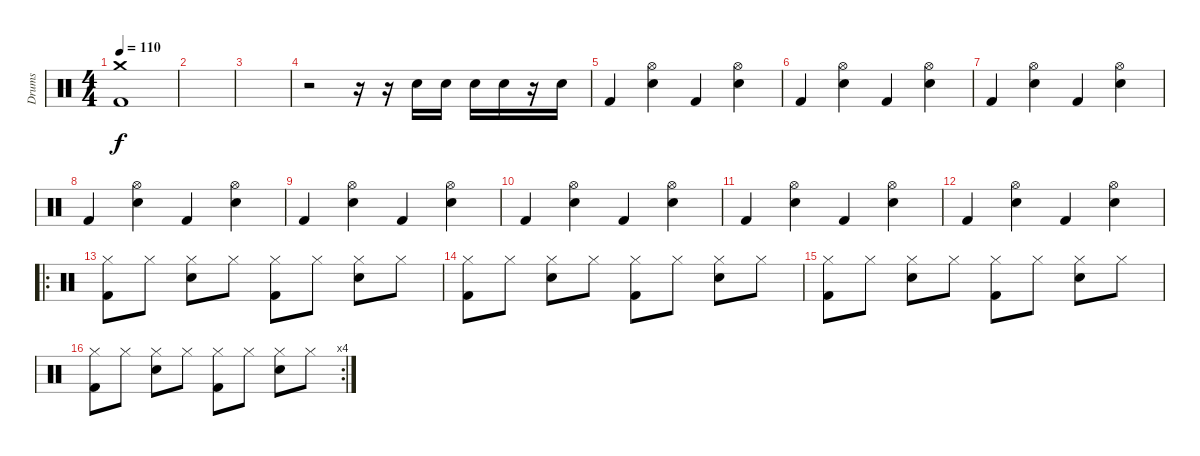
\track ("Drums" "Drums") {instrument percussion}
\staff {score}
\articulation defaults
\ts (4 4)
\tempo 110
\clef neutral
\ks c
("Kick (hit) 2" "Crash medium (hit)").1{dy f} |
|
|
r.2 r.16 r.16 "Electric Snare (hit)".16 "Electric Snare (hit)".16 "Electric Snare (hit)".16 "Electric Snare (hit)".16 r.16 "Electric Snare (hit)".16 |
"Kick (hit) 2".4 ("Electric Snare (hit)" "Hi-Hat (open)").4 "Kick (hit) 2".4 ("Electric Snare (hit)" "Hi-Hat (open)").4 |
"Kick (hit) 2".4 ("Electric Snare (hit)" "Hi-Hat (open)").4 "Kick (hit) 2".4 ("Electric Snare (hit)" "Hi-Hat (open)").4 |
"Kick (hit) 2".4 ("Electric Snare (hit)" "Hi-Hat (open)").4 "Kick (hit) 2".4 ("Electric Snare (hit)" "Hi-Hat (open)").4 |
"Kick (hit) 2".4 ("Electric Snare (hit)" "Hi-Hat (open)").4 "Kick (hit) 2".4 ("Electric Snare (hit)" "Hi-Hat (open)").4 |
"Kick (hit) 2".4 ("Electric Snare (hit)" "Hi-Hat (open)").4 "Kick (hit) 2".4 ("Electric Snare (hit)" "Hi-Hat (open)").4 |
"Kick (hit) 2".4 ("Electric Snare (hit)" "Hi-Hat (open)").4 "Kick (hit) 2".4 ("Electric Snare (hit)" "Hi-Hat (open)").4 |
"Kick (hit) 2".4 ("Electric Snare (hit)" "Hi-Hat (open)").4 "Kick (hit) 2".4 ("Electric Snare (hit)" "Hi-Hat (open)").4 |
"Kick (hit) 2".4 ("Electric Snare (hit)" "Hi-Hat (open)").4 "Kick (hit) 2".4 ("Electric Snare (hit)" "Hi-Hat (open)").4 |
\ro
("Kick (hit) 2" "Hi-Hat (closed)").8 "Hi-Hat (closed)".8 ("Electric Snare (hit)" "Hi-Hat (closed)").8 "Hi-Hat (closed)".8 ("Kick (hit) 2" "Hi-Hat (closed)").8 "Hi-Hat (closed)".8 ("Electric Snare (hit)" "Hi-Hat (closed)").8 "Hi-Hat (closed)".8 |
("Kick (hit) 2" "Hi-Hat (closed)").8 "Hi-Hat (closed)".8 ("Electric Snare (hit)" "Hi-Hat (closed)").8 "Hi-Hat (closed)".8 ("Kick (hit) 2" "Hi-Hat (closed)").8 "Hi-Hat (closed)".8 ("Electric Snare (hit)" "Hi-Hat (closed)").8 "Hi-Hat (closed)".8 |
("Kick (hit) 2" "Hi-Hat (closed)").8 "Hi-Hat (closed)".8 ("Electric Snare (hit)" "Hi-Hat (closed)").8 "Hi-Hat (closed)".8 ("Kick (hit) 2" "Hi-Hat (closed)").8 "Hi-Hat (closed)".8 ("Electric Snare (hit)" "Hi-Hat (closed)").8 "Hi-Hat (closed)".8 |
\rc 4
("Kick (hit) 2" "Hi-Hat (closed)").8 "Hi-Hat (closed)".8 ("Electric Snare (hit)" "Hi-Hat (closed)").8 "Hi-Hat (closed)".8 ("Kick (hit) 2" "Hi-Hat (closed)").8 "Hi-Hat (closed)".8 ("Electric Snare (hit)" "Hi-Hat (closed)").8 "Hi-Hat (closed)".8
